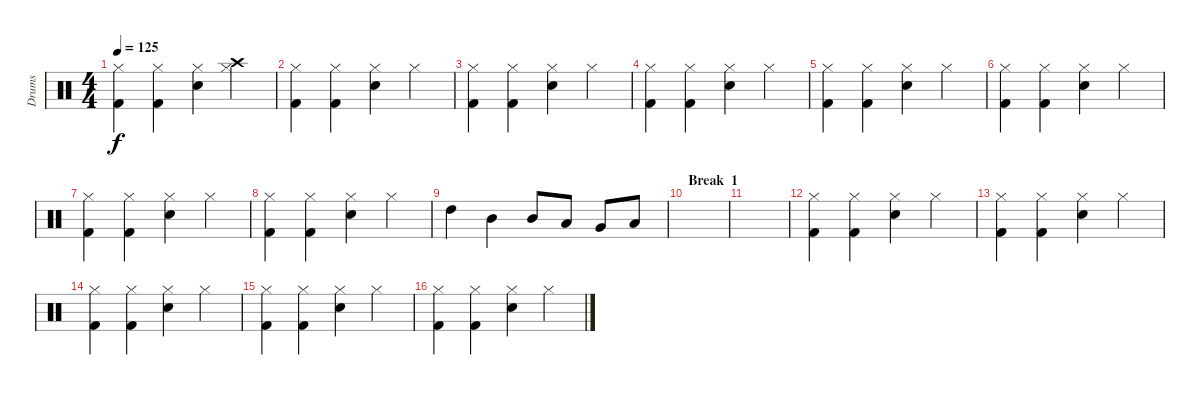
\track ("Drums" "Drums") {instrument percussion}
\staff {score}
\articulation defaults
\ts (4 4)
\tempo 125
\clef neutral
\ks c
("Hi-Hat (closed)" "Kick (hit) 2").4{dy f} ("Hi-Hat (closed)" "Kick (hit) 2").4 ("Hi-Hat (closed)" "Snare (hit) 2").4 ("Hi-Hat (closed)" "Crash high (hit)").4 |
("Hi-Hat (closed)" "Kick (hit) 2").4 ("Hi-Hat (closed)" "Kick (hit) 2").4 ("Hi-Hat (closed)" "Snare (hit) 2").4 "Hi-Hat (closed)".4 |
("Hi-Hat (closed)" "Kick (hit) 2").4 ("Hi-Hat (closed)" "Kick (hit) 2").4 ("Hi-Hat (closed)" "Snare (hit) 2").4 "Hi-Hat (closed)".4 |
("Hi-Hat (closed)" "Kick (hit) 2").4 ("Hi-Hat (closed)" "Kick (hit) 2").4 ("Hi-Hat (closed)" "Snare (hit) 2").4 "Hi-Hat (closed)".4 |
("Hi-Hat (closed)" "Kick (hit) 2").4 ("Hi-Hat (closed)" "Kick (hit) 2").4 ("Hi-Hat (closed)" "Snare (hit) 2").4 "Hi-Hat (closed)".4 |
("Hi-Hat (closed)" "Kick (hit) 2").4 ("Hi-Hat (closed)" "Kick (hit) 2").4 ("Hi-Hat (closed)" "Snare (hit) 2").4 "Hi-Hat (closed)".4 |
("Hi-Hat (closed)" "Kick (hit) 2").4 ("Hi-Hat (closed)" "Kick (hit) 2").4 ("Hi-Hat (closed)" "Snare (hit) 2").4 "Hi-Hat (closed)".4 |
("Hi-Hat (closed)" "Kick (hit) 2").4 ("Hi-Hat (closed)" "Kick (hit) 2").4 ("Hi-Hat (closed)" "Snare (hit) 2").4 "Hi-Hat (closed)".4 |
"High Tom (hit)".4 "Mid Tom (hit)".4 "Mid Tom (hit)".8 "Low Tom (hit)".8 "Very Low Tom (hit)".8 "Low Floor Tom (hit)".8 |
\section ("" "Break  1")
|
|
("Hi-Hat (closed)" "Kick (hit) 2").4 ("Hi-Hat (closed)" "Kick (hit) 2").4 ("Hi-Hat (closed)" "Snare (hit) 2").4 "Hi-Hat (closed)".4 |
("Hi-Hat (closed)" "Kick (hit) 2").4 ("Hi-Hat (closed)" "Kick (hit) 2").4 ("Hi-Hat (closed)" "Snare (hit) 2").4 "Hi-Hat (closed)".4 |
("Hi-Hat (closed)" "Kick (hit) 2").4 ("Hi-Hat (closed)" "Kick (hit) 2").4 ("Hi-Hat (closed)" "Snare (hit) 2").4 "Hi-Hat (closed)".4 |
("Hi-Hat (closed)" "Kick (hit) 2").4 ("Hi-Hat (closed)" "Kick (hit) 2").4 ("Hi-Hat (closed)" "Snare (hit) 2").4 "Hi-Hat (closed)".4 |
("Hi-Hat (closed)" "Kick (hit) 2").4 ("Hi-Hat (closed)" "Kick (hit) 2").4 ("Hi-Hat (closed)" "Snare (hit) 2").4 "Hi-Hat (closed)".4
